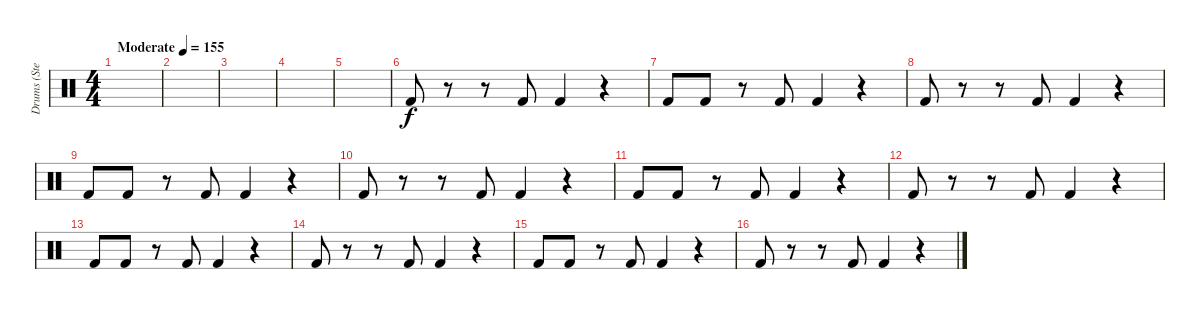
\track ("Drums (Stephen Morris)" "Drums (Ste") {instrument percussion}
\staff {score}
\articulation defaults
\ts (4 4)
\tempo (155 "Moderate")
\clef neutral
\ks c
|
|
|
|
|
"Kick (hit) 2".8 r.8 r.8 "Kick (hit) 2".8 "Kick (hit) 2".4 r.4 |
"Kick (hit) 2".8 "Kick (hit) 2".8 r.8 "Kick (hit) 2".8 "Kick (hit) 2".4 r.4 |
"Kick (hit) 2".8 r.8 r.8 "Kick (hit) 2".8 "Kick (hit) 2".4 r.4 |
"Kick (hit) 2".8 "Kick (hit) 2".8 r.8 "Kick (hit) 2".8 "Kick (hit) 2".4 r.4 |
"Kick (hit) 2".8 r.8 r.8 "Kick (hit) 2".8 "Kick (hit) 2".4 r.4 |
"Kick (hit) 2".8 "Kick (hit) 2".8 r.8 "Kick (hit) 2".8 "Kick (hit) 2".4 r.4 |
"Kick (hit) 2".8 r.8 r.8 "Kick (hit) 2".8 "Kick (hit) 2".4 r.4 |
"Kick (hit) 2".8 "Kick (hit) 2".8 r.8 "Kick (hit) 2".8 "Kick (hit) 2".4 r.4 |
"Kick (hit) 2".8 r.8 r.8 "Kick (hit) 2".8 "Kick (hit) 2".4 r.4 |
"Kick (hit) 2".8 "Kick (hit) 2".8 r.8 "Kick (hit) 2".8 "Kick (hit) 2".4 r.4 |
"Kick (hit) 2".8 r.8 r.8 "Kick (hit) 2".8 "Kick (hit) 2".4 r.4
